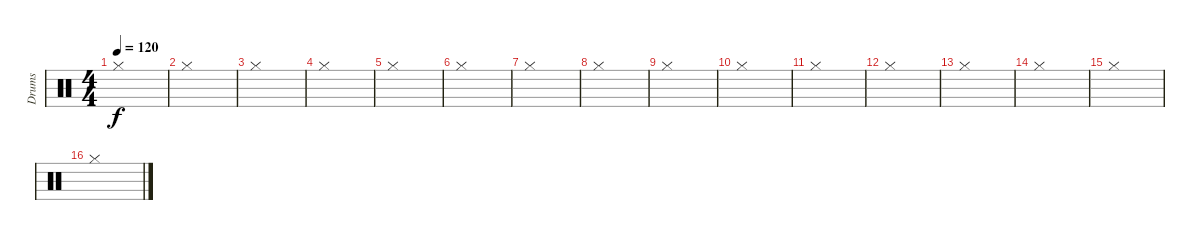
\track ("Drums" "Drums") {instrument percussion}
\staff {score}
\articulation defaults
\ts (4 4)
\tempo 120
\clef neutral
\ks c "Hi-Hat (closed)".1{dy f}
|
"Hi-Hat (closed)".1 |
"Hi-Hat (closed)".1 |
"Hi-Hat (closed)".1 |
"Hi-Hat (closed)".1 |
"Hi-Hat (closed)".1 |
"Hi-Hat (closed)".1 |
"Hi-Hat (closed)".1 |
"Hi-Hat (closed)".1 |
"Hi-Hat (closed)".1 |
"Hi-Hat (closed)".1 |
"Hi-Hat (closed)".1 |
"Hi-Hat (closed)".1 |
"Hi-Hat (closed)".1 |
"Hi-Hat (closed)".1 |
"Hi-Hat (closed)".1
